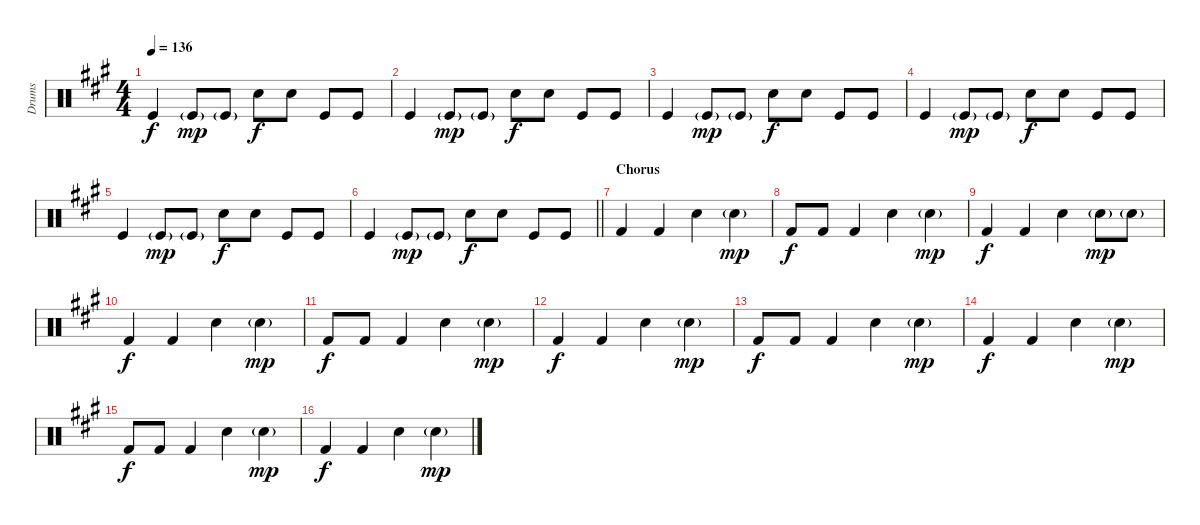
\track ("Drums" "Drums") {instrument percussion}
\staff {score}
\articulation defaults
\ts (4 4)
\tempo 136
\clef neutral
\ks a "Kick (hit)".4{dy f} "Kick (hit)"{g}.8{dy mp} "Kick (hit)"{g}.8 "Electric Snare (hit)".8{dy f} "Electric Snare (hit)".8 "Kick (hit)".8 "Kick (hit)".8
|
"Kick (hit)".4 "Kick (hit)"{g}.8{dy mp} "Kick (hit)"{g}.8 "Electric Snare (hit)".8{dy f} "Electric Snare (hit)".8 "Kick (hit)".8 "Kick (hit)".8 |
"Kick (hit)".4 "Kick (hit)"{g}.8{dy mp} "Kick (hit)"{g}.8 "Electric Snare (hit)".8{dy f} "Electric Snare (hit)".8 "Kick (hit)".8 "Kick (hit)".8 |
"Kick (hit)".4 "Kick (hit)"{g}.8{dy mp} "Kick (hit)"{g}.8 "Electric Snare (hit)".8{dy f} "Electric Snare (hit)".8 "Kick (hit)".8 "Kick (hit)".8 |
"Kick (hit)".4 "Kick (hit)"{g}.8{dy mp} "Kick (hit)"{g}.8 "Electric Snare (hit)".8{dy f} "Electric Snare (hit)".8 "Kick (hit)".8 "Kick (hit)".8 |
\barLineRight lightlight "Kick (hit)".4 "Kick (hit)"{g}.8{dy mp} "Kick (hit)"{g}.8 "Electric Snare (hit)".8{dy f} "Electric Snare (hit)".8 "Kick (hit)".8 "Kick (hit)".8
|
\section ("" "Chorus")
"Kick (hit) 2".4 "Kick (hit) 2".4 "Snare (hit) 2".4 "Snare (hit) 2"{g}.4{dy mp} |
"Kick (hit) 2".8{dy f} "Kick (hit) 2".8 "Kick (hit) 2".4 "Snare (hit) 2".4 "Snare (hit) 2"{g}.4{dy mp} |
"Kick (hit) 2".4{dy f} "Kick (hit) 2".4 "Snare (hit) 2".4 "Snare (hit) 2"{g}.8{dy mp} "Snare (hit) 2"{g}.8 |
"Kick (hit) 2".4{dy f} "Kick (hit) 2".4 "Snare (hit) 2".4 "Snare (hit) 2"{g}.4{dy mp} |
"Kick (hit) 2".8{dy f} "Kick (hit) 2".8 "Kick (hit) 2".4 "Snare (hit) 2".4 "Snare (hit) 2"{g}.4{dy mp} |
"Kick (hit) 2".4{dy f} "Kick (hit) 2".4 "Snare (hit) 2".4 "Snare (hit) 2"{g}.4{dy mp} |
"Kick (hit) 2".8{dy f} "Kick (hit) 2".8 "Kick (hit) 2".4 "Snare (hit) 2".4 "Snare (hit) 2"{g}.4{dy mp} |
"Kick (hit) 2".4{dy f} "Kick (hit) 2".4 "Snare (hit) 2".4 "Snare (hit) 2"{g}.4{dy mp} |
"Kick (hit) 2".8{dy f} "Kick (hit) 2".8 "Kick (hit) 2".4 "Snare (hit) 2".4 "Snare (hit) 2"{g}.4{dy mp} |
"Kick (hit) 2".4{dy f} "Kick (hit) 2".4 "Snare (hit) 2".4 "Snare (hit) 2"{g}.4{dy mp}
